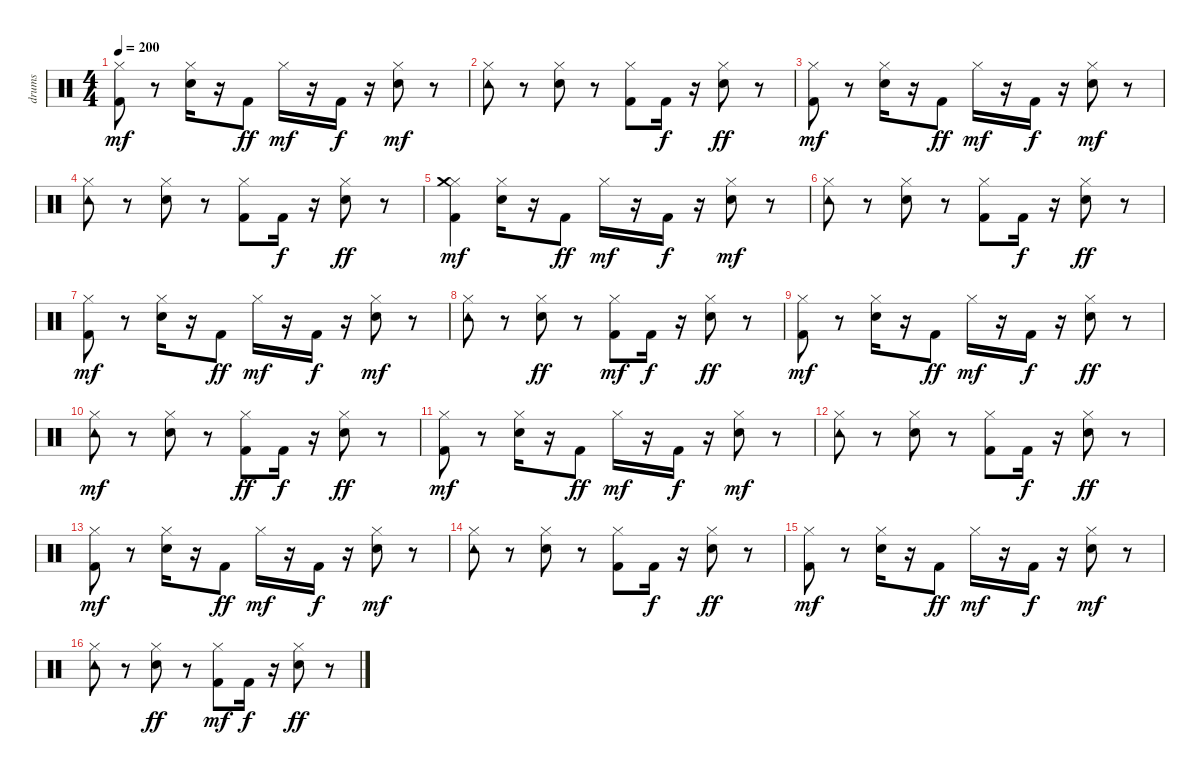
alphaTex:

\track ("drums" "drums") {instrument percussion}
\staff {score}
\articulation defaults
\ts (4 4)
\tempo 200
\clef neutral
\ks c
("Kick (hit) 2" "Hi-Hat (closed)").8{dy mf} r.8 ("Snare (hit) 2" "Hi-Hat (closed)").16 r.16 "Kick (hit) 2".8{dy ff} "Hi-Hat (closed)".16{dy mf} r.16 "Kick (hit) 2".16{dy f} r.16 ("Snare (hit) 2" "Hi-Hat (closed)").8{dy mf} r.8 |
("Tambourine (hit)" "Hi-Hat (closed)").8 r.8 ("Snare (hit) 2" "Hi-Hat (closed)").8 r.8 ("Kick (hit) 2" "Hi-Hat (closed)").8 "Kick (hit) 2".16{dy f} r.16 ("Snare (hit) 2" "Hi-Hat (closed)").8{dy ff} r.8 |
("Kick (hit) 2" "Hi-Hat (closed)").8{dy mf} r.8 ("Snare (hit) 2" "Hi-Hat (closed)").16 r.16 "Kick (hit) 2".8{dy ff} "Hi-Hat (closed)".16{dy mf} r.16 "Kick (hit) 2".16{dy f} r.16 ("Snare (hit) 2" "Hi-Hat (closed)").8{dy mf} r.8 |
("Tambourine (hit)" "Hi-Hat (closed)").8 r.8 ("Snare (hit) 2" "Hi-Hat (closed)").8 r.8 ("Kick (hit) 2" "Hi-Hat (closed)").8 "Kick (hit) 2".16{dy f} r.16 ("Snare (hit) 2" "Hi-Hat (closed)").8{dy ff} r.8 |
("Kick (hit) 2" "Hi-Hat (closed)" "Crash medium (hit)").4{dy mf} ("Snare (hit) 2" "Hi-Hat (closed)").16 r.16 "Kick (hit) 2".8{dy ff} "Hi-Hat (closed)".16{dy mf} r.16 "Kick (hit) 2".16{dy f} r.16 ("Snare (hit) 2" "Hi-Hat (closed)").8{dy mf} r.8 |
("Tambourine (hit)" "Hi-Hat (closed)").8 r.8 ("Snare (hit) 2" "Hi-Hat (closed)").8 r.8 ("Kick (hit) 2" "Hi-Hat (closed)").8 "Kick (hit) 2".16{dy f} r.16 ("Snare (hit) 2" "Hi-Hat (closed)").8{dy ff} r.8 |
("Kick (hit) 2" "Hi-Hat (closed)").8{dy mf} r.8 ("Snare (hit) 2" "Hi-Hat (closed)").16 r.16 "Kick (hit) 2".8{dy ff} "Hi-Hat (closed)".16{dy mf} r.16 "Kick (hit) 2".16{dy f} r.16 ("Snare (hit) 2" "Hi-Hat (closed)").8{dy mf} r.8 |
("Tambourine (hit)" "Hi-Hat (closed)").8 r.8 ("Hi-Hat (closed)" "Snare (hit) 2").8{dy ff} r.8 ("Kick (hit) 2" "Hi-Hat (closed)").8{dy mf} "Kick (hit) 2".16{dy f} r.16 ("Hi-Hat (closed)" "Snare (hit) 2").8{dy ff} r.8 |
("Kick (hit) 2" "Hi-Hat (closed)").8{dy mf} r.8 ("Snare (hit) 2" "Hi-Hat (closed)").16 r.16 "Kick (hit) 2".8{dy ff} "Hi-Hat (closed)".16{dy mf} r.16 "Kick (hit) 2".16{dy f} r.16 ("Hi-Hat (closed)" "Snare (hit) 2").8{dy ff} r.8 |
("Tambourine (hit)" "Hi-Hat (closed)").8{dy mf} r.8 ("Snare (hit) 2" "Hi-Hat (closed)").8 r.8 ("Hi-Hat (closed)" "Kick (hit) 2").8{dy ff} "Kick (hit) 2".16{dy f} r.16 ("Hi-Hat (closed)" "Snare (hit) 2").8{dy ff} r.8 |
("Kick (hit) 2" "Hi-Hat (closed)").8{dy mf} r.8 ("Hi-Hat (closed)" "Snare (hit) 2").16 r.16 "Kick (hit) 2".8{dy ff} "Hi-Hat (closed)".16{dy mf} r.16 "Kick (hit) 2".16{dy f} r.16 ("Snare (hit) 2" "Hi-Hat (closed)").8{dy mf} r.8 |
("Tambourine (hit)" "Hi-Hat (closed)").8 r.8 ("Snare (hit) 2" "Hi-Hat (closed)").8 r.8 ("Kick (hit) 2" "Hi-Hat (closed)").8 "Kick (hit) 2".16{dy f} r.16 ("Snare (hit) 2" "Hi-Hat (closed)").8{dy ff} r.8 |
("Kick (hit) 2" "Hi-Hat (closed)").8{dy mf} r.8 ("Snare (hit) 2" "Hi-Hat (closed)").16 r.16 "Kick (hit) 2".8{dy ff} "Hi-Hat (closed)".16{dy mf} r.16 "Kick (hit) 2".16{dy f} r.16 ("Snare (hit) 2" "Hi-Hat (closed)").8{dy mf} r.8 |
("Tambourine (hit)" "Hi-Hat (closed)").8 r.8 ("Snare (hit) 2" "Hi-Hat (closed)").8 r.8 ("Kick (hit) 2" "Hi-Hat (closed)").8 "Kick (hit) 2".16{dy f} r.16 ("Snare (hit) 2" "Hi-Hat (closed)").8{dy ff} r.8 |
("Kick (hit) 2" "Hi-Hat (closed)").8{dy mf} r.8 ("Snare (hit) 2" "Hi-Hat (closed)").16 r.16 "Kick (hit) 2".8{dy ff} "Hi-Hat (closed)".16{dy mf} r.16 "Kick (hit) 2".16{dy f} r.16 ("Snare (hit) 2" "Hi-Hat (closed)").8{dy mf} r.8 |
("Tambourine (hit)" "Hi-Hat (closed)").8 r.8 ("Hi-Hat (closed)" "Snare (hit) 2").8{dy ff} r.8 ("Kick (hit) 2" "Hi-Hat (closed)").8{dy mf} "Kick (hit) 2".16{dy f} r.16 ("Hi-Hat (closed)" "Snare (hit) 2").8{dy ff} r.8
